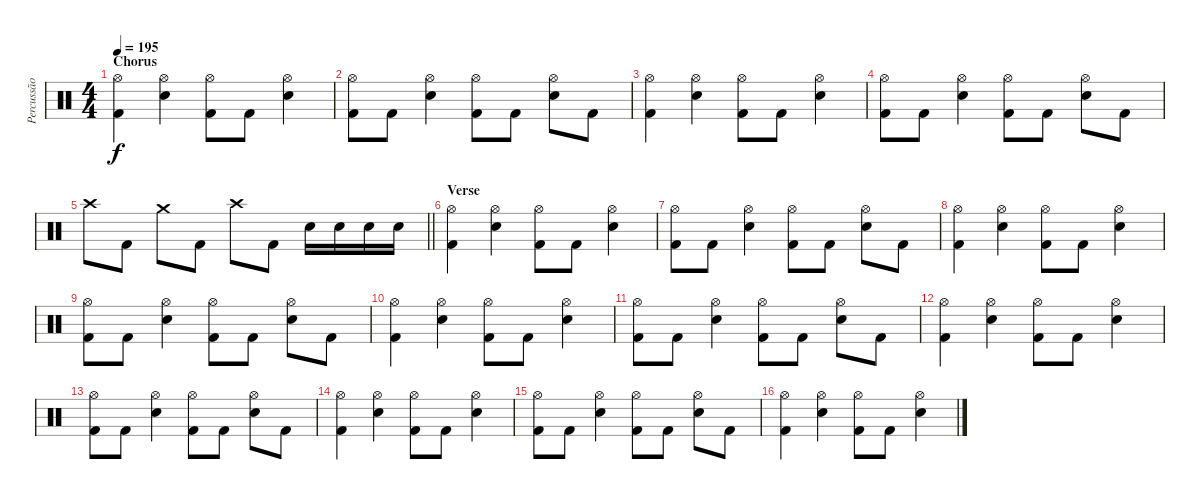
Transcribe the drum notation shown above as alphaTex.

\track ("Percussão" "Percussão") {instrument percussion}
\staff {score}
\articulation defaults
\ts (4 4)
\section ("" "Chorus")
\tempo 195
\clef neutral
\ks c
("Hi-Hat (open)" "Kick (hit) 2").4{dy f} ("Hi-Hat (open)" "Snare (hit) 2").4 ("Hi-Hat (open)" "Kick (hit) 2").8 "Kick (hit) 2".8 ("Hi-Hat (open)" "Snare (hit) 2").4 |
("Hi-Hat (open)" "Kick (hit) 2").8 "Kick (hit) 2".8 ("Hi-Hat (open)" "Snare (hit) 2").4 ("Hi-Hat (open)" "Kick (hit) 2").8 "Kick (hit) 2".8 ("Hi-Hat (open)" "Snare (hit) 2").8 "Kick (hit) 2".8 |
("Hi-Hat (open)" "Kick (hit) 2").4 ("Hi-Hat (open)" "Snare (hit) 2").4 ("Hi-Hat (open)" "Kick (hit) 2").8 "Kick (hit) 2".8 ("Hi-Hat (open)" "Snare (hit) 2").4 |
("Hi-Hat (open)" "Kick (hit) 2").8 "Kick (hit) 2".8 ("Hi-Hat (open)" "Snare (hit) 2").4 ("Hi-Hat (open)" "Kick (hit) 2").8 "Kick (hit) 2".8 ("Hi-Hat (open)" "Snare (hit) 2").8 "Kick (hit) 2".8 |
\barLineRight lightlight "Crash high (hit)".8 "Kick (hit) 2".8 "Crash medium (hit)".8 "Kick (hit) 2".8 "Crash high (hit)".8 "Kick (hit) 2".8 "Snare (hit) 2".16 "Snare (hit) 2".16 "Snare (hit) 2".16 "Snare (hit) 2".16
|
\section ("" "Verse")
("Hi-Hat (open)" "Kick (hit) 2").4 ("Hi-Hat (open)" "Snare (hit) 2").4 ("Hi-Hat (open)" "Kick (hit) 2").8 "Kick (hit) 2".8 ("Hi-Hat (open)" "Snare (hit) 2").4 |
("Hi-Hat (open)" "Kick (hit) 2").8 "Kick (hit) 2".8 ("Hi-Hat (open)" "Snare (hit) 2").4 ("Hi-Hat (open)" "Kick (hit) 2").8 "Kick (hit) 2".8 ("Hi-Hat (open)" "Snare (hit) 2").8 "Kick (hit) 2".8 |
("Hi-Hat (open)" "Kick (hit) 2").4 ("Hi-Hat (open)" "Snare (hit) 2").4 ("Hi-Hat (open)" "Kick (hit) 2").8 "Kick (hit) 2".8 ("Hi-Hat (open)" "Snare (hit) 2").4 |
("Hi-Hat (open)" "Kick (hit) 2").8 "Kick (hit) 2".8 ("Hi-Hat (open)" "Snare (hit) 2").4 ("Hi-Hat (open)" "Kick (hit) 2").8 "Kick (hit) 2".8 ("Hi-Hat (open)" "Snare (hit) 2").8 "Kick (hit) 2".8 |
("Hi-Hat (open)" "Kick (hit) 2").4 ("Hi-Hat (open)" "Snare (hit) 2").4 ("Hi-Hat (open)" "Kick (hit) 2").8 "Kick (hit) 2".8 ("Hi-Hat (open)" "Snare (hit) 2").4 |
("Hi-Hat (open)" "Kick (hit) 2").8 "Kick (hit) 2".8 ("Hi-Hat (open)" "Snare (hit) 2").4 ("Hi-Hat (open)" "Kick (hit) 2").8 "Kick (hit) 2".8 ("Hi-Hat (open)" "Snare (hit) 2").8 "Kick (hit) 2".8 |
("Hi-Hat (open)" "Kick (hit) 2").4 ("Hi-Hat (open)" "Snare (hit) 2").4 ("Hi-Hat (open)" "Kick (hit) 2").8 "Kick (hit) 2".8 ("Hi-Hat (open)" "Snare (hit) 2").4 |
("Hi-Hat (open)" "Kick (hit) 2").8 "Kick (hit) 2".8 ("Hi-Hat (open)" "Snare (hit) 2").4 ("Hi-Hat (open)" "Kick (hit) 2").8 "Kick (hit) 2".8 ("Hi-Hat (open)" "Snare (hit) 2").8 "Kick (hit) 2".8 |
("Hi-Hat (open)" "Kick (hit) 2").4 ("Hi-Hat (open)" "Snare (hit) 2").4 ("Hi-Hat (open)" "Kick (hit) 2").8 "Kick (hit) 2".8 ("Hi-Hat (open)" "Snare (hit) 2").4 |
("Hi-Hat (open)" "Kick (hit) 2").8 "Kick (hit) 2".8 ("Hi-Hat (open)" "Snare (hit) 2").4 ("Hi-Hat (open)" "Kick (hit) 2").8 "Kick (hit) 2".8 ("Hi-Hat (open)" "Snare (hit) 2").8 "Kick (hit) 2".8 |
("Hi-Hat (open)" "Kick (hit) 2").4 ("Hi-Hat (open)" "Snare (hit) 2").4 ("Hi-Hat (open)" "Kick (hit) 2").8 "Kick (hit) 2".8 ("Hi-Hat (open)" "Snare (hit) 2").4
